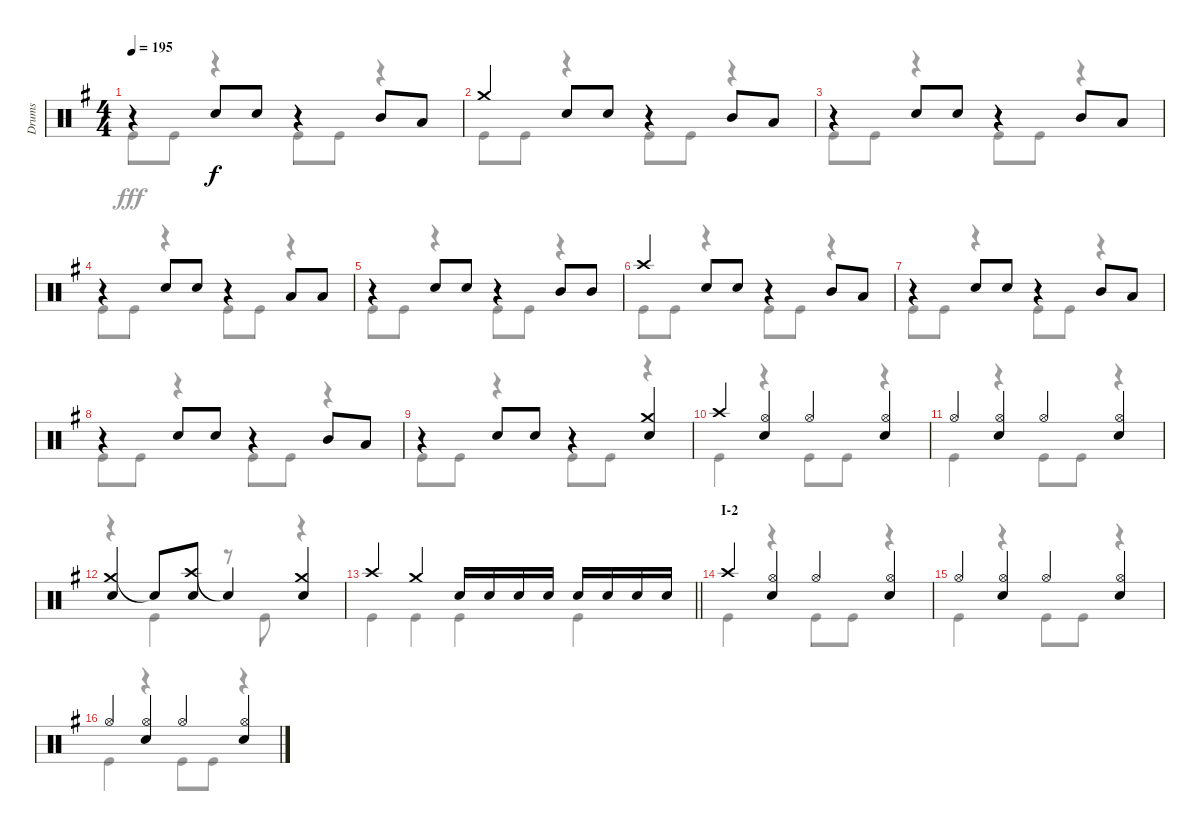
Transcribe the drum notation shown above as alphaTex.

\track ("Drums" "Drums") {instrument percussion}
\staff {score}
\articulation defaults
\voice
\ts (4 4)
\tempo 195
\clef neutral
\ks g
r.4{dy f} "Snare (hit) 2".8 "Snare (hit) 2".8 r.4 "Mid Tom (hit)".8 "Low Tom (hit)".8 |
"Crash medium (hit)".4 "Snare (hit) 2".8 "Snare (hit) 2".8 r.4 "Mid Tom (hit)".8 "Low Tom (hit)".8 |
r.4 "Snare (hit) 2".8 "Snare (hit) 2".8 r.4 "Mid Tom (hit)".8 "Low Tom (hit)".8 |
r.4 "Snare (hit) 2".8 "Snare (hit) 2".8 r.4 "Low Tom (hit)".8 "Low Tom (hit)".8 |
r.4 "Snare (hit) 2".8 "Snare (hit) 2".8 r.4 "Mid Tom (hit)".8 "Mid Tom (hit)".8 |
"Crash high (hit)".4 "Snare (hit) 2".8 "Snare (hit) 2".8 r.4 "Mid Tom (hit)".8 "Low Tom (hit)".8 |
r.4 "Snare (hit) 2".8 "Snare (hit) 2".8 r.4 "Mid Tom (hit)".8 "Low Tom (hit)".8 |
r.4 "Snare (hit) 2".8 "Snare (hit) 2".8 r.4 "Mid Tom (hit)".8 "Low Tom (hit)".8 |
r.4 "Snare (hit) 2".8 "Snare (hit) 2".8 r.4 ("Crash medium (hit)" "Snare (hit) 2").4 |
"Crash high (hit)".4 ("Hi-Hat (open)" "Snare (hit) 2").4 "Hi-Hat (open)".4 ("Hi-Hat (open)" "Snare (hit) 2").4 |
"Hi-Hat (open)".4 ("Hi-Hat (open)" "Snare (hit) 2").4 "Hi-Hat (open)".4 ("Hi-Hat (open)" "Snare (hit) 2").4 |
("Crash medium (hit)" "Snare (hit) 2").4 "Snare (hit)"{t}.8 ("Crash high (hit)" "Snare (hit) 2").8 "Snare (hit)"{t}.4 ("Crash medium (hit)" "Snare (hit) 2").4 |
\barLineRight lightlight "Crash high (hit)".4 "Crash medium (hit)".4 "Snare (hit) 2".16 "Snare (hit) 2".16 "Snare (hit) 2".16 "Snare (hit) 2".16 "Snare (hit) 2".16 "Snare (hit) 2".16 "Snare (hit) 2".16 "Snare (hit) 2".16
|
\section ("" "I-2")
"Crash high (hit)".4 ("Hi-Hat (open)" "Snare (hit) 2").4 "Hi-Hat (open)".4 ("Hi-Hat (open)" "Snare (hit) 2").4 |
"Hi-Hat (open)".4 ("Hi-Hat (open)" "Snare (hit) 2").4 "Hi-Hat (open)".4 ("Hi-Hat (open)" "Snare (hit) 2").4 |
"Hi-Hat (open)".4 ("Hi-Hat (open)" "Snare (hit) 2").4 "Hi-Hat (open)".4 ("Hi-Hat (open)" "Snare (hit) 2").4
\voice
\clef neutral
\ottava regular
\simile none
\ks g "Kick (hit)".8{dy fff} "Kick (hit)".8
r.4 "Kick (hit)".8 "Kick (hit)".8 r.4 |
"Kick (hit)".8 "Kick (hit)".8 r.4 "Kick (hit)".8 "Kick (hit)".8 r.4 |
"Kick (hit)".8 "Kick (hit)".8 r.4 "Kick (hit)".8 "Kick (hit)".8 r.4 |
"Kick (hit)".8 "Kick (hit)".8 r.4 "Kick (hit)".8 "Kick (hit)".8 r.4 |
"Kick (hit)".8 "Kick (hit)".8 r.4 "Kick (hit)".8 "Kick (hit)".8 r.4 |
"Kick (hit)".8 "Kick (hit)".8 r.4 "Kick (hit)".8 "Kick (hit)".8 r.4 |
"Kick (hit)".8 "Kick (hit)".8 r.4 "Kick (hit)".8 "Kick (hit)".8 r.4 |
"Kick (hit)".8 "Kick (hit)".8 r.4 "Kick (hit)".8 "Kick (hit)".8 r.4 |
"Kick (hit)".8 "Kick (hit)".8 r.4 "Kick (hit)".8 "Kick (hit)".8 r.4 |
"Kick (hit)".4 r.4 "Kick (hit)".8 "Kick (hit)".8 r.4 |
"Kick (hit)".4 r.4 "Kick (hit)".8 "Kick (hit)".8 r.4 |
r.4 "Kick (hit)".4 r.8 "Kick (hit)".8 r.4 |
\barLineRight lightlight "Kick (hit)".4 "Kick (hit)".4 "Kick (hit)".4 "Kick (hit)".4
|
"Kick (hit)".4 r.4 "Kick (hit)".8 "Kick (hit)".8 r.4 |
"Kick (hit)".4 r.4 "Kick (hit)".8 "Kick (hit)".8 r.4 |
"Kick (hit)".4 r.4 "Kick (hit)".8 "Kick (hit)".8 r.4
